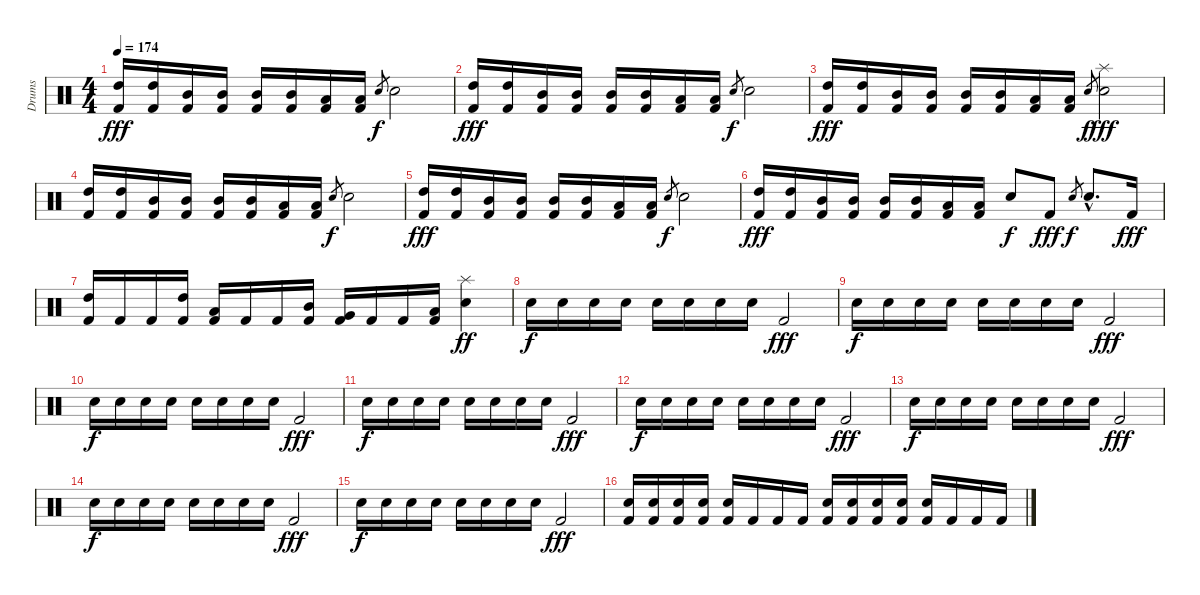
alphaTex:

\track ("Drums" "Drums") {instrument percussion}
\staff {score}
\articulation defaults
\ts (4 4)
\tempo 174
\clef neutral
\ks c
("High Tom (hit)" "Kick (hit) 2").16{dy fff} ("High Tom (hit)" "Kick (hit) 2").16 ("Mid Tom (hit)" "Kick (hit) 2").16 ("Mid Tom (hit)" "Kick (hit) 2").16 ("Mid Tom (hit)" "Kick (hit) 2").16 ("Mid Tom (hit)" "Kick (hit) 2").16 ("Low Tom (hit)" "Kick (hit) 2").16 ("Low Tom (hit)" "Kick (hit) 2").16 "Snare (hit) 2".8{gr dy f} "Snare (hit) 2".2 |
("High Tom (hit)" "Kick (hit) 2").16{dy fff} ("High Tom (hit)" "Kick (hit) 2").16 ("Mid Tom (hit)" "Kick (hit) 2").16 ("Mid Tom (hit)" "Kick (hit) 2").16 ("Mid Tom (hit)" "Kick (hit) 2").16 ("Mid Tom (hit)" "Kick (hit) 2").16 ("Low Tom (hit)" "Kick (hit) 2").16 ("Low Tom (hit)" "Kick (hit) 2").16 "Snare (hit) 2".8{gr dy f} "Snare (hit) 2".2 |
("High Tom (hit)" "Kick (hit) 2").16{dy fff} ("High Tom (hit)" "Kick (hit) 2").16 ("Mid Tom (hit)" "Kick (hit) 2").16 ("Mid Tom (hit)" "Kick (hit) 2").16 ("Mid Tom (hit)" "Kick (hit) 2").16 ("Mid Tom (hit)" "Kick (hit) 2").16 ("Low Tom (hit)" "Kick (hit) 2").16 ("Low Tom (hit)" "Kick (hit) 2").16 "Snare (hit) 2".8{gr dy f} ("Splash (hit)" "Snare (hit) 2").2{dy fff} |
("High Tom (hit)" "Kick (hit) 2").16 ("High Tom (hit)" "Kick (hit) 2").16 ("Mid Tom (hit)" "Kick (hit) 2").16 ("Mid Tom (hit)" "Kick (hit) 2").16 ("Mid Tom (hit)" "Kick (hit) 2").16 ("Mid Tom (hit)" "Kick (hit) 2").16 ("Low Tom (hit)" "Kick (hit) 2").16 ("Low Tom (hit)" "Kick (hit) 2").16 "Snare (hit) 2".8{gr dy f} "Snare (hit) 2".2 |
("High Tom (hit)" "Kick (hit) 2").16{dy fff} ("High Tom (hit)" "Kick (hit) 2").16 ("Mid Tom (hit)" "Kick (hit) 2").16 ("Mid Tom (hit)" "Kick (hit) 2").16 ("Mid Tom (hit)" "Kick (hit) 2").16 ("Mid Tom (hit)" "Kick (hit) 2").16 ("Low Tom (hit)" "Kick (hit) 2").16 ("Low Tom (hit)" "Kick (hit) 2").16 "Snare (hit) 2".8{gr dy f} "Snare (hit) 2".2 |
("High Tom (hit)" "Kick (hit) 2").16{dy fff} ("High Tom (hit)" "Kick (hit) 2").16 ("Mid Tom (hit)" "Kick (hit) 2").16 ("Mid Tom (hit)" "Kick (hit) 2").16 ("Mid Tom (hit)" "Kick (hit) 2").16 ("Mid Tom (hit)" "Kick (hit) 2").16 ("Low Tom (hit)" "Kick (hit) 2").16 ("Low Tom (hit)" "Kick (hit) 2").16 "Snare (hit) 2".8{dy f} "Kick (hit) 2".8{dy fff} "Snare (hit) 2".8{gr dy f} "Snare (hit) 2"{hac}.8{d} "Kick (hit) 2".16{dy fff} |
("High Tom (hit)" "Kick (hit) 2").16 "Kick (hit) 2".16 "Kick (hit) 2".16 ("High Tom (hit)" "Kick (hit) 2").16 ("Low Tom (hit)" "Kick (hit) 2").16 "Kick (hit) 2".16 "Kick (hit) 2".16 ("Mid Tom (hit)" "Kick (hit) 2").16 ("Very Low Tom (hit)" "Kick (hit) 2").16 "Kick (hit) 2".16 "Kick (hit) 2".16 ("Low Tom (hit)" "Kick (hit) 2").16 ("Splash (hit)" "Snare (hit) 2").4{dy ff} |
"Snare (hit) 2".16{dy f} "Snare (hit) 2".16 "Snare (hit) 2".16 "Snare (hit) 2".16 "Snare (hit) 2".16 "Snare (hit) 2".16 "Snare (hit) 2".16 "Snare (hit) 2".16 "Kick (hit) 2".2{dy fff} |
"Snare (hit) 2".16{dy f} "Snare (hit) 2".16 "Snare (hit) 2".16 "Snare (hit) 2".16 "Snare (hit) 2".16 "Snare (hit) 2".16 "Snare (hit) 2".16 "Snare (hit) 2".16 "Kick (hit) 2".2{dy fff} |
"Snare (hit) 2".16{dy f} "Snare (hit) 2".16 "Snare (hit) 2".16 "Snare (hit) 2".16 "Snare (hit) 2".16 "Snare (hit) 2".16 "Snare (hit) 2".16 "Snare (hit) 2".16 "Kick (hit) 2".2{dy fff} |
"Snare (hit) 2".16{dy f} "Snare (hit) 2".16 "Snare (hit) 2".16 "Snare (hit) 2".16 "Snare (hit) 2".16 "Snare (hit) 2".16 "Snare (hit) 2".16 "Snare (hit) 2".16 "Kick (hit) 2".2{dy fff} |
"Snare (hit) 2".16{dy f} "Snare (hit) 2".16 "Snare (hit) 2".16 "Snare (hit) 2".16 "Snare (hit) 2".16 "Snare (hit) 2".16 "Snare (hit) 2".16 "Snare (hit) 2".16 "Kick (hit) 2".2{dy fff} |
"Snare (hit) 2".16{dy f} "Snare (hit) 2".16 "Snare (hit) 2".16 "Snare (hit) 2".16 "Snare (hit) 2".16 "Snare (hit) 2".16 "Snare (hit) 2".16 "Snare (hit) 2".16 "Kick (hit) 2".2{dy fff} |
"Snare (hit) 2".16{dy f} "Snare (hit) 2".16 "Snare (hit) 2".16 "Snare (hit) 2".16 "Snare (hit) 2".16 "Snare (hit) 2".16 "Snare (hit) 2".16 "Snare (hit) 2".16 "Kick (hit) 2".2{dy fff} |
"Snare (hit) 2".16{dy f} "Snare (hit) 2".16 "Snare (hit) 2".16 "Snare (hit) 2".16 "Snare (hit) 2".16 "Snare (hit) 2".16 "Snare (hit) 2".16 "Snare (hit) 2".16 "Kick (hit) 2".2{dy fff} |
("Snare (hit) 2" "Kick (hit) 2").16 ("Snare (hit) 2" "Kick (hit) 2").16 ("Snare (hit) 2" "Kick (hit) 2").16 ("Snare (hit) 2" "Kick (hit) 2").16 ("Snare (hit) 2" "Kick (hit) 2").16 "Kick (hit) 2".16 "Kick (hit) 2".16 "Kick (hit) 2".16 ("Snare (hit) 2" "Kick (hit) 2").16 ("Snare (hit) 2" "Kick (hit) 2").16 ("Snare (hit) 2" "Kick (hit) 2").16 ("Snare (hit) 2" "Kick (hit) 2").16 ("Snare (hit) 2" "Kick (hit) 2").16 "Kick (hit) 2".16 "Kick (hit) 2".16 "Kick (hit) 2".16
